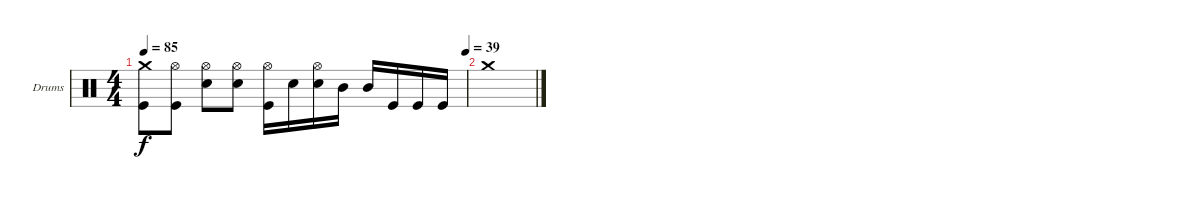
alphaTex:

\defaultSystemsLayout 4
\bracketExtendMode groupsimilarinstruments
\firstSystemTrackNameOrientation horizontal
\otherSystemsTrackNameOrientation horizontal
\track ("Drumkit" "Drums") {instrument percussion}
\staff {score}
\articulation defaults
\ts (4 4)
\tempo 85
\tempo (39 1)
\clef neutral
\ks c
("Crash medium (hit)" "Kick (hit)").8{dy f} ("Hi-Hat (open)" "Kick (hit)").8 ("Hi-Hat (open)" "Snare (hit) 2").8 ("Hi-Hat (open)" "Snare (hit) 2").8 ("Hi-Hat (open)" "Kick (hit)").16 "Snare (hit) 2".16 ("Hi-Hat (open)" "Snare (hit) 2").16 "Mid Tom (hit)".16 "Mid Tom (hit)".16 "Kick (hit)".16 "Kick (hit)".16 "Kick (hit)".16 |
"Crash medium (hit)".1
